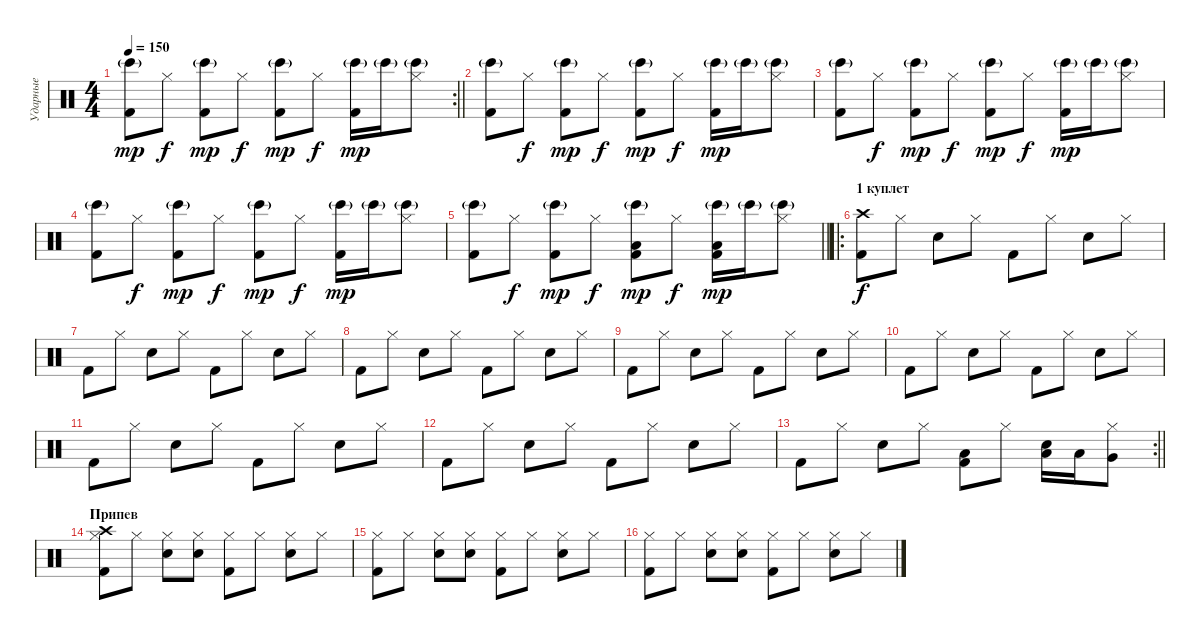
\track ("Ударные" "Ударные") {instrument percussion}
\staff {score}
\articulation defaults
\rc 2
\ts (4 4)
\tempo 150
\clef neutral
\barLineRight lightlight
\ks c
("Kick (hit) 2" "Bongo High (hit)"{g}).8{dy mp} "Hi-Hat (closed)".8{dy f} ("Kick (hit) 2" "Bongo High (hit)"{g}).8{dy mp} "Hi-Hat (closed)".8{dy f} ("Kick (hit) 2" "Bongo High (hit)"{g}).8{dy mp} "Hi-Hat (closed)".8{dy f} ("Kick (hit) 2" "Bongo High (hit)"{g}).16{dy mp} "Bongo High (hit)"{g}.16 ("Hi-Hat (closed)" "Bongo High (hit)"{g}).8 |
("Kick (hit) 2" "Bongo High (hit)"{g}).8 "Hi-Hat (closed)".8{dy f} ("Kick (hit) 2" "Bongo High (hit)"{g}).8{dy mp} "Hi-Hat (closed)".8{dy f} ("Kick (hit) 2" "Bongo High (hit)"{g}).8{dy mp} "Hi-Hat (closed)".8{dy f} ("Kick (hit) 2" "Bongo High (hit)"{g}).16{dy mp} "Bongo High (hit)"{g}.16 ("Hi-Hat (closed)" "Bongo High (hit)"{g}).8 |
("Kick (hit) 2" "Bongo High (hit)"{g}).8 "Hi-Hat (closed)".8{dy f} ("Kick (hit) 2" "Bongo High (hit)"{g}).8{dy mp} "Hi-Hat (closed)".8{dy f} ("Kick (hit) 2" "Bongo High (hit)"{g}).8{dy mp} "Hi-Hat (closed)".8{dy f} ("Kick (hit) 2" "Bongo High (hit)"{g}).16{dy mp} "Bongo High (hit)"{g}.16 ("Hi-Hat (closed)" "Bongo High (hit)"{g}).8 |
("Kick (hit) 2" "Bongo High (hit)"{g}).8 "Hi-Hat (closed)".8{dy f} ("Kick (hit) 2" "Bongo High (hit)"{g}).8{dy mp} "Hi-Hat (closed)".8{dy f} ("Kick (hit) 2" "Bongo High (hit)"{g}).8{dy mp} "Hi-Hat (closed)".8{dy f} ("Kick (hit) 2" "Bongo High (hit)"{g}).16{dy mp} "Bongo High (hit)"{g}.16 ("Hi-Hat (closed)" "Bongo High (hit)"{g}).8 |
\barLineRight lightlight
("Kick (hit) 2" "Bongo High (hit)"{g}).8 "Hi-Hat (closed)".8{dy f} ("Kick (hit) 2" "Bongo High (hit)"{g}).8{dy mp} "Hi-Hat (closed)".8{dy f} ("Kick (hit) 2" "Bongo High (hit)"{g} "Low Tom (hit)").8{dy mp} "Hi-Hat (closed)".8{dy f} ("Kick (hit) 2" "Bongo High (hit)"{g} "Low Tom (hit)").16{dy mp} "Bongo High (hit)"{g}.16 ("Hi-Hat (closed)" "Bongo High (hit)"{g}).8 |
\ro
\section ("" "1 куплет")
("Kick (hit) 2" "Crash high (hit)").8{dy f} "Hi-Hat (closed)".8 "Snare (hit) 2".8 "Hi-Hat (closed)".8 "Kick (hit) 2".8 "Hi-Hat (closed)".8 "Snare (hit) 2".8 "Hi-Hat (closed)".8 |
"Kick (hit) 2".8 "Hi-Hat (closed)".8 "Snare (hit) 2".8 "Hi-Hat (closed)".8 "Kick (hit) 2".8 "Hi-Hat (closed)".8 "Snare (hit) 2".8 "Hi-Hat (closed)".8 |
"Kick (hit) 2".8 "Hi-Hat (closed)".8 "Snare (hit) 2".8 "Hi-Hat (closed)".8 "Kick (hit) 2".8 "Hi-Hat (closed)".8 "Snare (hit) 2".8 "Hi-Hat (closed)".8 |
"Kick (hit) 2".8 "Hi-Hat (closed)".8 "Snare (hit) 2".8 "Hi-Hat (closed)".8 "Kick (hit) 2".8 "Hi-Hat (closed)".8 "Snare (hit) 2".8 "Hi-Hat (closed)".8 |
"Kick (hit) 2".8 "Hi-Hat (closed)".8 "Snare (hit) 2".8 "Hi-Hat (closed)".8 "Kick (hit) 2".8 "Hi-Hat (closed)".8 "Snare (hit) 2".8 "Hi-Hat (closed)".8 |
"Kick (hit) 2".8 "Hi-Hat (closed)".8 "Snare (hit) 2".8 "Hi-Hat (closed)".8 "Kick (hit) 2".8 "Hi-Hat (closed)".8 "Snare (hit) 2".8 "Hi-Hat (closed)".8 |
"Kick (hit) 2".8 "Hi-Hat (closed)".8 "Snare (hit) 2".8 "Hi-Hat (closed)".8 "Kick (hit) 2".8 "Hi-Hat (closed)".8 "Snare (hit) 2".8 "Hi-Hat (closed)".8 |
\rc 2
\barLineRight lightlight "Kick (hit) 2".8 "Hi-Hat (closed)".8 "Snare (hit) 2".8 "Hi-Hat (closed)".8
("Kick (hit) 2" "Low Tom (hit)").8 "Hi-Hat (closed)".8 ("Snare (hit) 2" "Low Tom (hit)").16 "Low Tom (hit)".16 ("Hi-Hat (closed)" "Very Low Tom (hit)").8 |
\section ("" "Припев")
("Kick (hit) 2" "Hi-Hat (closed)" "Crash high (hit)").8 "Hi-Hat (closed)".8 ("Snare (hit) 2" "Hi-Hat (closed)").8 ("Snare (hit) 2" "Hi-Hat (closed)").8 ("Kick (hit) 2" "Hi-Hat (closed)").8 "Hi-Hat (closed)".8 ("Snare (hit) 2" "Hi-Hat (closed)").8 "Hi-Hat (closed)".8 |
("Kick (hit) 2" "Hi-Hat (closed)").8 "Hi-Hat (closed)".8 ("Snare (hit) 2" "Hi-Hat (closed)").8 ("Snare (hit) 2" "Hi-Hat (closed)").8 ("Kick (hit) 2" "Hi-Hat (closed)").8 "Hi-Hat (closed)".8 ("Snare (hit) 2" "Hi-Hat (closed)").8 "Hi-Hat (closed)".8 |
("Kick (hit) 2" "Hi-Hat (closed)").8 "Hi-Hat (closed)".8 ("Snare (hit) 2" "Hi-Hat (closed)").8 ("Snare (hit) 2" "Hi-Hat (closed)").8 ("Kick (hit) 2" "Hi-Hat (closed)").8 "Hi-Hat (closed)".8 ("Snare (hit) 2" "Hi-Hat (closed)").8 "Hi-Hat (closed)".8
